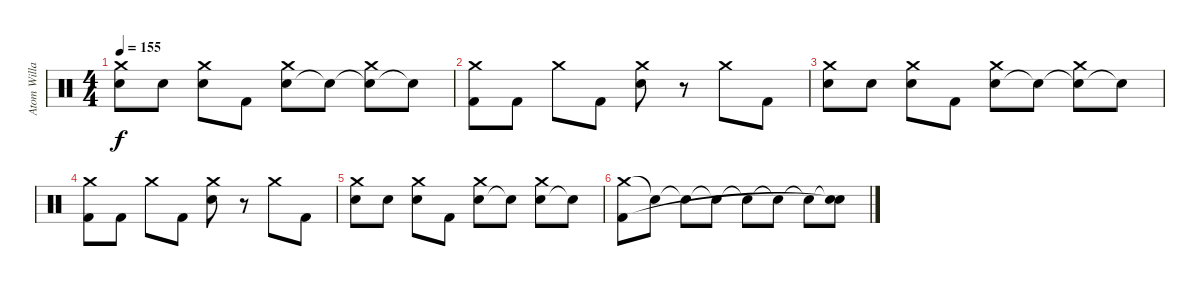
\track ("Atom Willard Drums" "Atom Willa") {instrument percussion}
\staff {score}
\articulation defaults
\ts (4 4)
\tempo 155
\clef neutral
\ks c
("Snare (hit)" "Crash medium (hit)").8{dy f} "Electric Snare (hit)".8 ("Snare (hit)" "Crash medium (hit)").8 "Kick (hit) 2".8 ("Electric Snare (hit)" "Crash medium (hit)").8 "Snare (hit)"{t}.8 ("Snare (hit)"{t} "Crash medium (hit)").8 "Snare (hit)"{t}.8 |
("Kick (hit) 2" "Crash medium (hit)").8 "Kick (hit) 2".8 "Crash medium (hit)".8 "Kick (hit) 2".8 ("Electric Snare (hit)" "Crash medium (hit)").8 r.8 "Crash medium (hit)".8 "Kick (hit) 2".8 |
("Snare (hit)" "Crash medium (hit)").8 "Electric Snare (hit)".8 ("Snare (hit)" "Crash medium (hit)").8 "Kick (hit) 2".8 ("Electric Snare (hit)" "Crash medium (hit)").8 "Snare (hit)"{t}.8 ("Snare (hit)"{t} "Crash medium (hit)").8 "Snare (hit)"{t}.8 |
("Kick (hit) 2" "Crash medium (hit)").8 "Kick (hit) 2".8 "Crash medium (hit)".8 "Kick (hit) 2".8 ("Electric Snare (hit)" "Crash medium (hit)").8 r.8 "Crash medium (hit)".8 "Kick (hit) 2".8 |
("Snare (hit)" "Crash medium (hit)").8 "Electric Snare (hit)".8 ("Snare (hit)" "Crash medium (hit)").8 "Kick (hit) 2".8 ("Electric Snare (hit)" "Crash medium (hit)").8 "Snare (hit)"{t}.8 ("Electric Snare (hit)" "Crash medium (hit)").8 "Snare (hit)"{t}.8 |
("Crash medium (hit)" "Kick (hit) 2").8 "Snare (hit)"{t}.8 "Snare (hit)"{t}.8 "Snare (hit)"{t}.8 "Snare (hit)"{t}.8 "Snare (hit)"{t}.8 "Snare (hit)"{t}.8 ("Snare (hit)"{t} "Snare (hit)"{t}).8
